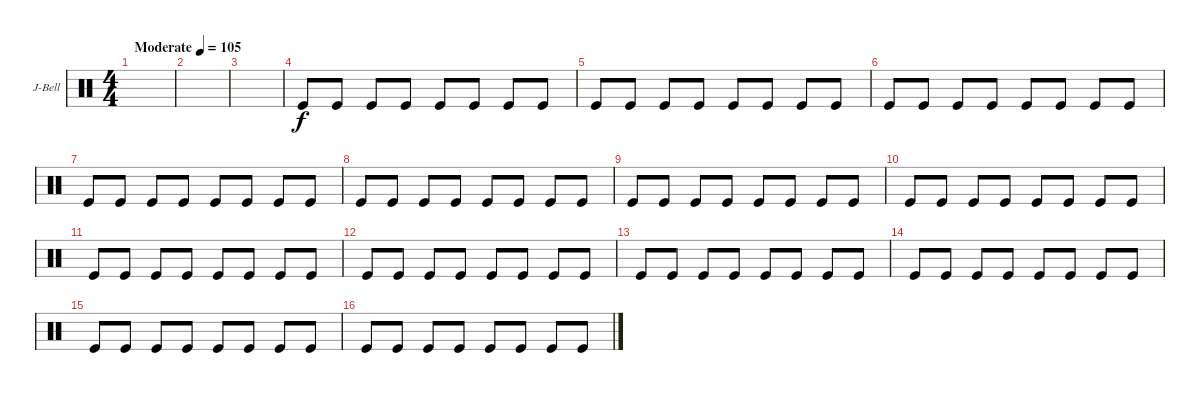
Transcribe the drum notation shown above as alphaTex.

\bracketExtendMode groupsimilarinstruments
\firstSystemTrackNameOrientation horizontal
\otherSystemsTrackNameOrientation horizontal
\track ("Jingle Bell" "J-Bell") {instrument percussion}
\staff {score}
\articulation defaults
\ts (4 4)
\beaming (8 2 2 2 2)
\tempo (105 "Moderate")
\clef neutral
\scale
0.472222
\ks c
|
\scale
0.263889 |
\scale
0.263889 |
\scale
0.333333 "Kick (hit)".8 "Kick (hit)".8 "Kick (hit)".8 "Kick (hit)".8 "Kick (hit)".8 "Kick (hit)".8 "Kick (hit)".8 "Kick (hit)".8 |
\scale
0.333333 "Kick (hit)".8 "Kick (hit)".8 "Kick (hit)".8 "Kick (hit)".8 "Kick (hit)".8 "Kick (hit)".8 "Kick (hit)".8 "Kick (hit)".8 |
\scale
0.333333 "Kick (hit)".8 "Kick (hit)".8 "Kick (hit)".8 "Kick (hit)".8 "Kick (hit)".8 "Kick (hit)".8 "Kick (hit)".8 "Kick (hit)".8 |
\scale
0.333333 "Kick (hit)".8 "Kick (hit)".8 "Kick (hit)".8 "Kick (hit)".8 "Kick (hit)".8 "Kick (hit)".8 "Kick (hit)".8 "Kick (hit)".8 |
\scale
0.333333 "Kick (hit)".8 "Kick (hit)".8 "Kick (hit)".8 "Kick (hit)".8 "Kick (hit)".8 "Kick (hit)".8 "Kick (hit)".8 "Kick (hit)".8 |
\scale
0.333333 "Kick (hit)".8 "Kick (hit)".8 "Kick (hit)".8 "Kick (hit)".8 "Kick (hit)".8 "Kick (hit)".8 "Kick (hit)".8 "Kick (hit)".8 |
\scale
0.333333 "Kick (hit)".8 "Kick (hit)".8 "Kick (hit)".8 "Kick (hit)".8 "Kick (hit)".8 "Kick (hit)".8 "Kick (hit)".8 "Kick (hit)".8 |
\scale
0.333333 "Kick (hit)".8 "Kick (hit)".8 "Kick (hit)".8 "Kick (hit)".8 "Kick (hit)".8 "Kick (hit)".8 "Kick (hit)".8 "Kick (hit)".8 |
\scale
0.333333 "Kick (hit)".8 "Kick (hit)".8 "Kick (hit)".8 "Kick (hit)".8 "Kick (hit)".8 "Kick (hit)".8 "Kick (hit)".8 "Kick (hit)".8 |
\scale
0.333333 "Kick (hit)".8 "Kick (hit)".8 "Kick (hit)".8 "Kick (hit)".8 "Kick (hit)".8 "Kick (hit)".8 "Kick (hit)".8 "Kick (hit)".8 |
\scale
0.333333 "Kick (hit)".8 "Kick (hit)".8 "Kick (hit)".8 "Kick (hit)".8 "Kick (hit)".8 "Kick (hit)".8 "Kick (hit)".8 "Kick (hit)".8 |
\scale
0.333333 "Kick (hit)".8 "Kick (hit)".8 "Kick (hit)".8 "Kick (hit)".8 "Kick (hit)".8 "Kick (hit)".8 "Kick (hit)".8 "Kick (hit)".8 |
\scale
0.333333 "Kick (hit)".8 "Kick (hit)".8 "Kick (hit)".8 "Kick (hit)".8 "Kick (hit)".8 "Kick (hit)".8 "Kick (hit)".8 "Kick (hit)".8
